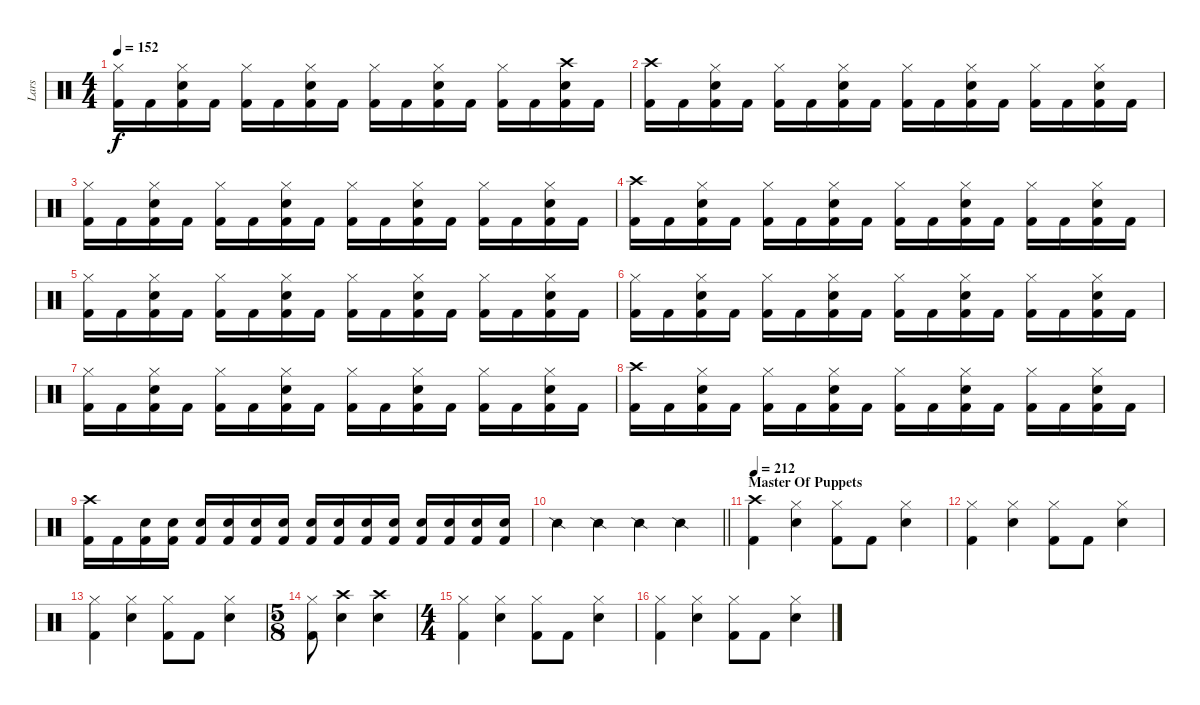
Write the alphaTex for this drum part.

\track ("Lars" "Lars") {instrument percussion}
\staff {score}
\articulation defaults
\ts (4 4)
\tempo 152
\clef neutral
\ks c
("Hi-Hat (closed)" "Kick (hit) 2").16{dy f} "Kick (hit) 2".16 ("Hi-Hat (closed)" "Snare (hit) 2" "Kick (hit) 2").16 "Kick (hit) 2".16 ("Hi-Hat (closed)" "Kick (hit) 2").16 "Kick (hit) 2".16 ("Hi-Hat (closed)" "Snare (hit) 2" "Kick (hit) 2").16 "Kick (hit) 2".16 ("Hi-Hat (closed)" "Kick (hit) 2").16 "Kick (hit) 2".16 ("Hi-Hat (closed)" "Snare (hit) 2" "Kick (hit) 2").16 "Kick (hit) 2".16 ("Hi-Hat (closed)" "Kick (hit) 2").16 "Kick (hit) 2".16 ("Crash high (hit)" "Snare (hit) 2" "Kick (hit) 2").16 "Kick (hit) 2".16 |
("Crash high (hit)" "Kick (hit) 2").16 "Kick (hit) 2".16 ("Hi-Hat (closed)" "Snare (hit) 2" "Kick (hit) 2").16 "Kick (hit) 2".16 ("Hi-Hat (closed)" "Kick (hit) 2").16 "Kick (hit) 2".16 ("Hi-Hat (closed)" "Snare (hit) 2" "Kick (hit) 2").16 "Kick (hit) 2".16 ("Hi-Hat (closed)" "Kick (hit) 2").16 "Kick (hit) 2".16 ("Hi-Hat (closed)" "Snare (hit) 2" "Kick (hit) 2").16 "Kick (hit) 2".16 ("Hi-Hat (closed)" "Kick (hit) 2").16 "Kick (hit) 2".16 ("Hi-Hat (closed)" "Snare (hit) 2" "Kick (hit) 2").16 "Kick (hit) 2".16 |
("Hi-Hat (closed)" "Kick (hit) 2").16 "Kick (hit) 2".16 ("Hi-Hat (closed)" "Snare (hit) 2" "Kick (hit) 2").16 "Kick (hit) 2".16 ("Hi-Hat (closed)" "Kick (hit) 2").16 "Kick (hit) 2".16 ("Hi-Hat (closed)" "Snare (hit) 2" "Kick (hit) 2").16 "Kick (hit) 2".16 ("Hi-Hat (closed)" "Kick (hit) 2").16 "Kick (hit) 2".16 ("Hi-Hat (closed)" "Snare (hit) 2" "Kick (hit) 2").16 "Kick (hit) 2".16 ("Hi-Hat (closed)" "Kick (hit) 2").16 "Kick (hit) 2".16 ("Hi-Hat (closed)" "Snare (hit) 2" "Kick (hit) 2").16 "Kick (hit) 2".16 |
("Crash high (hit)" "Kick (hit) 2").16 "Kick (hit) 2".16 ("Hi-Hat (closed)" "Snare (hit) 2" "Kick (hit) 2").16 "Kick (hit) 2".16 ("Hi-Hat (closed)" "Kick (hit) 2").16 "Kick (hit) 2".16 ("Hi-Hat (closed)" "Snare (hit) 2" "Kick (hit) 2").16 "Kick (hit) 2".16 ("Hi-Hat (closed)" "Kick (hit) 2").16 "Kick (hit) 2".16 ("Hi-Hat (closed)" "Snare (hit) 2" "Kick (hit) 2").16 "Kick (hit) 2".16 ("Hi-Hat (closed)" "Kick (hit) 2").16 "Kick (hit) 2".16 ("Hi-Hat (closed)" "Snare (hit) 2" "Kick (hit) 2").16 "Kick (hit) 2".16 |
("Hi-Hat (closed)" "Kick (hit) 2").16 "Kick (hit) 2".16 ("Hi-Hat (closed)" "Snare (hit) 2" "Kick (hit) 2").16 "Kick (hit) 2".16 ("Hi-Hat (closed)" "Kick (hit) 2").16 "Kick (hit) 2".16 ("Hi-Hat (closed)" "Snare (hit) 2" "Kick (hit) 2").16 "Kick (hit) 2".16 ("Hi-Hat (closed)" "Kick (hit) 2").16 "Kick (hit) 2".16 ("Hi-Hat (closed)" "Snare (hit) 2" "Kick (hit) 2").16 "Kick (hit) 2".16 ("Hi-Hat (closed)" "Kick (hit) 2").16 "Kick (hit) 2".16 ("Hi-Hat (closed)" "Snare (hit) 2" "Kick (hit) 2").16 "Kick (hit) 2".16 |
("Hi-Hat (closed)" "Kick (hit) 2").16 "Kick (hit) 2".16 ("Hi-Hat (closed)" "Snare (hit) 2" "Kick (hit) 2").16 "Kick (hit) 2".16 ("Hi-Hat (closed)" "Kick (hit) 2").16 "Kick (hit) 2".16 ("Hi-Hat (closed)" "Snare (hit) 2" "Kick (hit) 2").16 "Kick (hit) 2".16 ("Hi-Hat (closed)" "Kick (hit) 2").16 "Kick (hit) 2".16 ("Hi-Hat (closed)" "Snare (hit) 2" "Kick (hit) 2").16 "Kick (hit) 2".16 ("Hi-Hat (closed)" "Kick (hit) 2").16 "Kick (hit) 2".16 ("Hi-Hat (closed)" "Snare (hit) 2" "Kick (hit) 2").16 "Kick (hit) 2".16 |
("Hi-Hat (closed)" "Kick (hit) 2").16 "Kick (hit) 2".16 ("Hi-Hat (closed)" "Snare (hit) 2" "Kick (hit) 2").16 "Kick (hit) 2".16 ("Hi-Hat (closed)" "Kick (hit) 2").16 "Kick (hit) 2".16 ("Hi-Hat (closed)" "Snare (hit) 2" "Kick (hit) 2").16 "Kick (hit) 2".16 ("Hi-Hat (closed)" "Kick (hit) 2").16 "Kick (hit) 2".16 ("Hi-Hat (closed)" "Snare (hit) 2" "Kick (hit) 2").16 "Kick (hit) 2".16 ("Hi-Hat (closed)" "Kick (hit) 2").16 "Kick (hit) 2".16 ("Hi-Hat (closed)" "Snare (hit) 2" "Kick (hit) 2").16 "Kick (hit) 2".16 |
("Crash high (hit)" "Kick (hit) 2").16 "Kick (hit) 2".16 ("Hi-Hat (closed)" "Snare (hit) 2" "Kick (hit) 2").16 "Kick (hit) 2".16 ("Hi-Hat (closed)" "Kick (hit) 2").16 "Kick (hit) 2".16 ("Hi-Hat (closed)" "Snare (hit) 2" "Kick (hit) 2").16 "Kick (hit) 2".16 ("Hi-Hat (closed)" "Kick (hit) 2").16 "Kick (hit) 2".16 ("Hi-Hat (closed)" "Snare (hit) 2" "Kick (hit) 2").16 "Kick (hit) 2".16 ("Hi-Hat (closed)" "Kick (hit) 2").16 "Kick (hit) 2".16 ("Hi-Hat (closed)" "Snare (hit) 2" "Kick (hit) 2").16 "Kick (hit) 2".16 |
("Crash high (hit)" "Kick (hit) 2").16 "Kick (hit) 2".16 ("Snare (hit) 2" "Kick (hit) 2").16 ("Snare (hit) 2" "Kick (hit) 2").16 ("Snare (hit) 2" "Kick (hit) 2").16 ("Snare (hit) 2" "Kick (hit) 2").16 ("Snare (hit) 2" "Kick (hit) 2").16 ("Snare (hit) 2" "Kick (hit) 2").16 ("Snare (hit) 2" "Kick (hit) 2").16 ("Snare (hit) 2" "Kick (hit) 2").16 ("Snare (hit) 2" "Kick (hit) 2").16 ("Snare (hit) 2" "Kick (hit) 2").16 ("Snare (hit) 2" "Kick (hit) 2").16 ("Snare (hit) 2" "Kick (hit) 2").16 ("Snare (hit) 2" "Kick (hit) 2").16 ("Snare (hit) 2" "Kick (hit) 2").16 |
\barLineRight lightlight "Snare (side stick) 2".4 "Snare (side stick) 2".4 "Snare (side stick) 2".4 "Snare (side stick) 2".4
|
\section ("" "Master Of Puppets")
\tempo 212
("Crash high (hit)" "Kick (hit) 2").4 ("Hi-Hat (closed)" "Snare (hit) 2").4 ("Hi-Hat (closed)" "Kick (hit) 2").8 "Kick (hit) 2".8 ("Hi-Hat (closed)" "Snare (hit) 2").4 |
("Hi-Hat (closed)" "Kick (hit) 2").4 ("Hi-Hat (closed)" "Snare (hit) 2").4 ("Hi-Hat (closed)" "Kick (hit) 2").8 "Kick (hit) 2".8 ("Hi-Hat (closed)" "Snare (hit) 2").4 |
("Hi-Hat (closed)" "Kick (hit) 2").4 ("Hi-Hat (closed)" "Snare (hit) 2").4 ("Hi-Hat (closed)" "Kick (hit) 2").8 "Kick (hit) 2".8 ("Hi-Hat (closed)" "Snare (hit) 2").4 |
\ts (5 8)
("Hi-Hat (closed)" "Kick (hit) 2").8 ("Crash high (hit)" "Snare (hit) 2").4 ("Crash high (hit)" "Snare (hit) 2").4 |
\ts (4 4)
("Hi-Hat (closed)" "Kick (hit) 2").4 ("Hi-Hat (closed)" "Snare (hit) 2").4 ("Hi-Hat (closed)" "Kick (hit) 2").8 "Kick (hit) 2".8 ("Hi-Hat (closed)" "Snare (hit) 2").4 |
("Hi-Hat (closed)" "Kick (hit) 2").4 ("Hi-Hat (closed)" "Snare (hit) 2").4 ("Hi-Hat (closed)" "Kick (hit) 2").8 "Kick (hit) 2".8 ("Hi-Hat (closed)" "Snare (hit) 2").4
